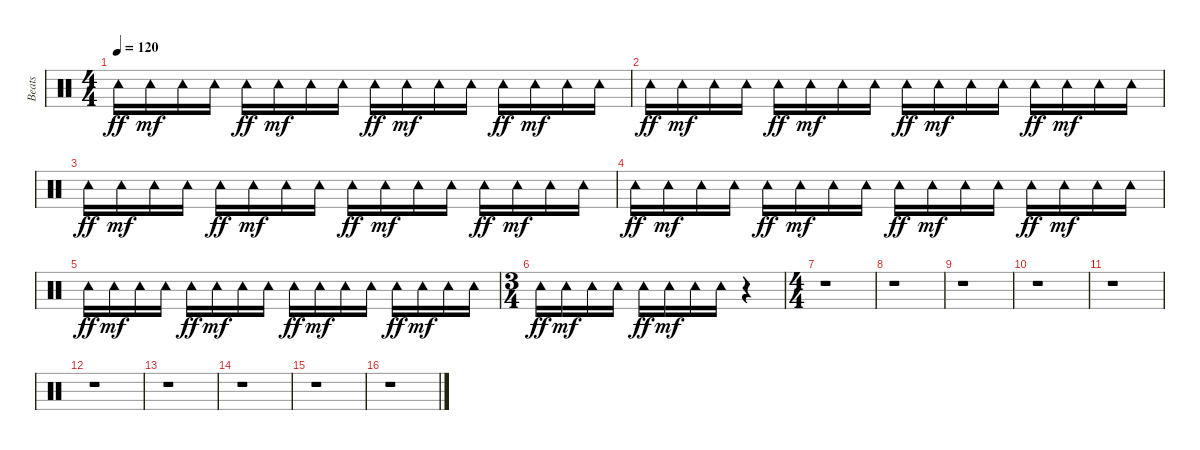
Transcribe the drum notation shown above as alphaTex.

\track ("Beats" "Beats") {instrument percussion}
\staff {score}
\articulation defaults
\ts (4 4)
\tempo 120
\clef neutral
\ks c "Tambourine (hit)".16{dy ff} "Tambourine (hit)".16{dy mf} "Tambourine (hit)".16 "Tambourine (hit)".16 "Tambourine (hit)".16{dy ff} "Tambourine (hit)".16{dy mf} "Tambourine (hit)".16 "Tambourine (hit)".16 "Tambourine (hit)".16{dy ff} "Tambourine (hit)".16{dy mf} "Tambourine (hit)".16 "Tambourine (hit)".16 "Tambourine (hit)".16{dy ff} "Tambourine (hit)".16{dy mf} "Tambourine (hit)".16 "Tambourine (hit)".16
|
"Tambourine (hit)".16{dy ff} "Tambourine (hit)".16{dy mf} "Tambourine (hit)".16 "Tambourine (hit)".16 "Tambourine (hit)".16{dy ff} "Tambourine (hit)".16{dy mf} "Tambourine (hit)".16 "Tambourine (hit)".16 "Tambourine (hit)".16{dy ff} "Tambourine (hit)".16{dy mf} "Tambourine (hit)".16 "Tambourine (hit)".16 "Tambourine (hit)".16{dy ff} "Tambourine (hit)".16{dy mf} "Tambourine (hit)".16 "Tambourine (hit)".16 |
"Tambourine (hit)".16{dy ff} "Tambourine (hit)".16{dy mf} "Tambourine (hit)".16 "Tambourine (hit)".16 "Tambourine (hit)".16{dy ff} "Tambourine (hit)".16{dy mf} "Tambourine (hit)".16 "Tambourine (hit)".16 "Tambourine (hit)".16{dy ff} "Tambourine (hit)".16{dy mf} "Tambourine (hit)".16 "Tambourine (hit)".16 "Tambourine (hit)".16{dy ff} "Tambourine (hit)".16{dy mf} "Tambourine (hit)".16 "Tambourine (hit)".16 |
"Tambourine (hit)".16{dy ff} "Tambourine (hit)".16{dy mf} "Tambourine (hit)".16 "Tambourine (hit)".16 "Tambourine (hit)".16{dy ff} "Tambourine (hit)".16{dy mf} "Tambourine (hit)".16 "Tambourine (hit)".16 "Tambourine (hit)".16{dy ff} "Tambourine (hit)".16{dy mf} "Tambourine (hit)".16 "Tambourine (hit)".16 "Tambourine (hit)".16{dy ff} "Tambourine (hit)".16{dy mf} "Tambourine (hit)".16 "Tambourine (hit)".16 |
"Tambourine (hit)".16{dy ff} "Tambourine (hit)".16{dy mf} "Tambourine (hit)".16 "Tambourine (hit)".16 "Tambourine (hit)".16{dy ff} "Tambourine (hit)".16{dy mf} "Tambourine (hit)".16 "Tambourine (hit)".16 "Tambourine (hit)".16{dy ff} "Tambourine (hit)".16{dy mf} "Tambourine (hit)".16 "Tambourine (hit)".16 "Tambourine (hit)".16{dy ff} "Tambourine (hit)".16{dy mf} "Tambourine (hit)".16 "Tambourine (hit)".16 |
\ts (3 4)
"Tambourine (hit)".16{dy ff} "Tambourine (hit)".16{dy mf} "Tambourine (hit)".16 "Tambourine (hit)".16 "Tambourine (hit)".16{dy ff} "Tambourine (hit)".16{dy mf} "Tambourine (hit)".16 "Tambourine (hit)".16 r.4 |
\ts (4 4)
r.1 |
r.1 |
r.1 |
r.1 |
r.1 |
r.1 |
r.1 |
r.1 |
r.1 |
r.1
